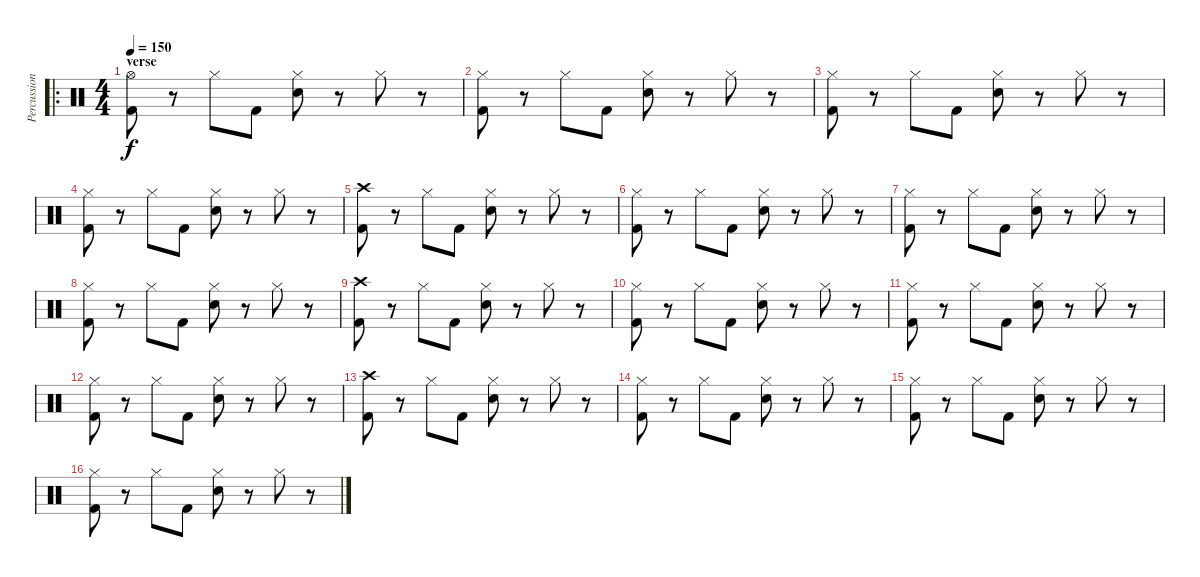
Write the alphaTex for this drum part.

\track ("Percussion" "Percussion") {instrument percussion}
\staff {score}
\articulation defaults
\ro
\ts (4 4)
\section ("" "verse")
\tempo 150
\clef neutral
\ks c
("Hi-Hat (open)" "Kick (hit) 2").8{dy f} r.8 "Hi-Hat (closed)".8 "Kick (hit) 2".8 ("Hi-Hat (closed)" "Electric Snare (hit)").8 r.8 "Hi-Hat (closed)".8 r.8 |
("Hi-Hat (closed)" "Kick (hit) 2").8 r.8 "Hi-Hat (closed)".8 "Kick (hit) 2".8 ("Hi-Hat (closed)" "Electric Snare (hit)").8 r.8 "Hi-Hat (closed)".8 r.8 |
("Hi-Hat (closed)" "Kick (hit) 2").8 r.8 "Hi-Hat (closed)".8 "Kick (hit) 2".8 ("Hi-Hat (closed)" "Electric Snare (hit)").8 r.8 "Hi-Hat (closed)".8 r.8 |
("Hi-Hat (closed)" "Kick (hit) 2").8 r.8 "Hi-Hat (closed)".8 "Kick (hit) 2".8 ("Hi-Hat (closed)" "Electric Snare (hit)").8 r.8 "Hi-Hat (closed)".8 r.8 |
("Crash high (hit)" "Kick (hit) 2").8 r.8 "Hi-Hat (closed)".8 "Kick (hit) 2".8 ("Hi-Hat (closed)" "Electric Snare (hit)").8 r.8 "Hi-Hat (closed)".8 r.8 |
("Hi-Hat (closed)" "Kick (hit) 2").8 r.8 "Hi-Hat (closed)".8 "Kick (hit) 2".8 ("Hi-Hat (closed)" "Electric Snare (hit)").8 r.8 "Hi-Hat (closed)".8 r.8 |
("Hi-Hat (closed)" "Kick (hit) 2").8 r.8 "Hi-Hat (closed)".8 "Kick (hit) 2".8 ("Hi-Hat (closed)" "Electric Snare (hit)").8 r.8 "Hi-Hat (closed)".8 r.8 |
("Hi-Hat (closed)" "Kick (hit) 2").8 r.8 "Hi-Hat (closed)".8 "Kick (hit) 2".8 ("Hi-Hat (closed)" "Electric Snare (hit)").8 r.8 "Hi-Hat (closed)".8 r.8 |
("Crash high (hit)" "Kick (hit) 2").8 r.8 "Hi-Hat (closed)".8 "Kick (hit) 2".8 ("Hi-Hat (closed)" "Electric Snare (hit)").8 r.8 "Hi-Hat (closed)".8 r.8 |
("Hi-Hat (closed)" "Kick (hit) 2").8 r.8 "Hi-Hat (closed)".8 "Kick (hit) 2".8 ("Hi-Hat (closed)" "Electric Snare (hit)").8 r.8 "Hi-Hat (closed)".8 r.8 |
("Hi-Hat (closed)" "Kick (hit) 2").8 r.8 "Hi-Hat (closed)".8 "Kick (hit) 2".8 ("Hi-Hat (closed)" "Electric Snare (hit)").8 r.8 "Hi-Hat (closed)".8 r.8 |
("Hi-Hat (closed)" "Kick (hit) 2").8 r.8 "Hi-Hat (closed)".8 "Kick (hit) 2".8 ("Hi-Hat (closed)" "Electric Snare (hit)").8 r.8 "Hi-Hat (closed)".8 r.8 |
("Crash high (hit)" "Kick (hit) 2").8 r.8 "Hi-Hat (closed)".8 "Kick (hit) 2".8 ("Hi-Hat (closed)" "Electric Snare (hit)").8 r.8 "Hi-Hat (closed)".8 r.8 |
("Hi-Hat (closed)" "Kick (hit) 2").8 r.8 "Hi-Hat (closed)".8 "Kick (hit) 2".8 ("Hi-Hat (closed)" "Electric Snare (hit)").8 r.8 "Hi-Hat (closed)".8 r.8 |
("Hi-Hat (closed)" "Kick (hit) 2").8 r.8 "Hi-Hat (closed)".8 "Kick (hit) 2".8 ("Hi-Hat (closed)" "Electric Snare (hit)").8 r.8 "Hi-Hat (closed)".8 r.8 |
("Hi-Hat (closed)" "Kick (hit) 2").8 r.8 "Hi-Hat (closed)".8 "Kick (hit) 2".8 ("Hi-Hat (closed)" "Electric Snare (hit)").8 r.8 "Hi-Hat (closed)".8 r.8
